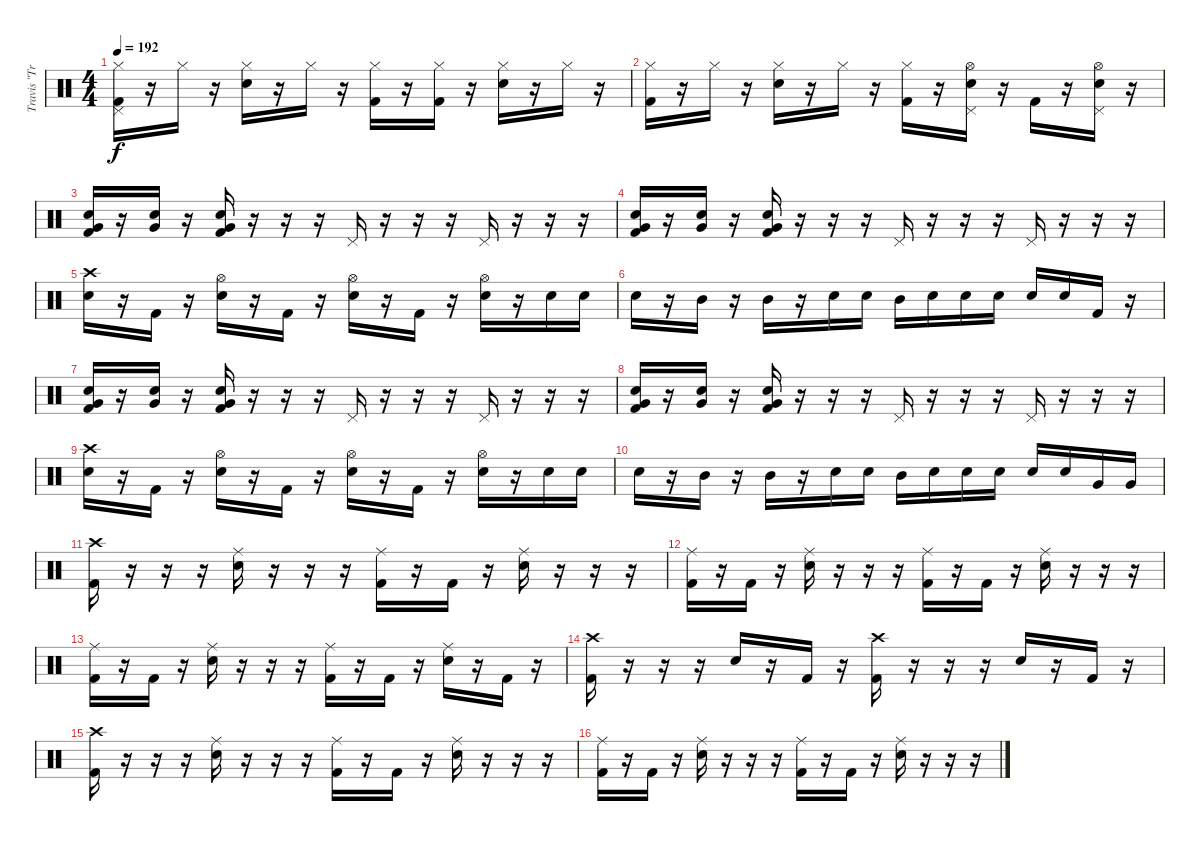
\track ("Travis \"Trevor\" Barker" "Travis \"Tr") {instrument percussion}
\staff {score}
\articulation defaults
\ts (4 4)
\tempo 192
\clef neutral
\ks c
("Hi-Hat (closed)" "Pedal Hi-Hat (hit)" "Kick (hit) 2").16{dy f} r.16 "Hi-Hat (closed)".16 r.16 ("Hi-Hat (closed)" "Snare (hit) 2").16 r.16 "Hi-Hat (closed)".16 r.16 ("Hi-Hat (closed)" "Kick (hit) 2").16 r.16 ("Hi-Hat (closed)" "Kick (hit) 2").16 r.16 ("Hi-Hat (closed)" "Snare (hit) 2").16 r.16 "Hi-Hat (closed)".16 r.16 |
("Hi-Hat (closed)" "Kick (hit) 2").16 r.16 "Hi-Hat (closed)".16 r.16 ("Hi-Hat (closed)" "Snare (hit) 2").16 r.16 "Hi-Hat (closed)".16 r.16 ("Hi-Hat (closed)" "Kick (hit) 2").16 r.16 ("Hi-Hat (open)" "Pedal Hi-Hat (hit)" "Snare (hit) 2").16 r.16 "Kick (hit) 2".16 r.16 ("Hi-Hat (open)" "Pedal Hi-Hat (hit)" "Snare (hit) 2").16 r.16 |
("Snare (hit) 2" "Very Low Tom (hit)" "Kick (hit) 2").16 r.16 ("Snare (hit) 2" "Very Low Tom (hit)").16 r.16 ("Snare (hit) 2" "Very Low Tom (hit)" "Kick (hit) 2").16 r.16 r.16 r.16 "Pedal Hi-Hat (hit)".16 r.16 r.16 r.16 "Pedal Hi-Hat (hit)".16 r.16 r.16 r.16 |
("Snare (hit) 2" "Very Low Tom (hit)" "Kick (hit) 2").16 r.16 ("Snare (hit) 2" "Very Low Tom (hit)").16 r.16 ("Snare (hit) 2" "Very Low Tom (hit)" "Kick (hit) 2").16 r.16 r.16 r.16 "Pedal Hi-Hat (hit)".16 r.16 r.16 r.16 "Pedal Hi-Hat (hit)".16 r.16 r.16 r.16 |
("Crash high (hit)" "Snare (hit) 2").16 r.16 "Kick (hit) 2".16 r.16 ("Hi-Hat (open)" "Snare (hit) 2").16 r.16 "Kick (hit) 2".16 r.16 ("Hi-Hat (open)" "Snare (hit) 2").16 r.16 "Kick (hit) 2".16 r.16 ("Hi-Hat (open)" "Snare (hit) 2").16 r.16 "Snare (hit) 2".16 "Snare (hit) 2".16 |
"Snare (hit) 2".16 r.16 "Mid Tom (hit)".16 r.16 "Mid Tom (hit)".16 r.16 "Snare (hit) 2".16 "Snare (hit) 2".16 "Mid Tom (hit)".16 "Snare (hit) 2".16 "Snare (hit) 2".16 "Snare (hit) 2".16 "Snare (hit) 2".16 "Snare (hit) 2".16 "Kick (hit) 2".16 r.16 |
("Snare (hit) 2" "Very Low Tom (hit)" "Kick (hit) 2").16 r.16 ("Snare (hit) 2" "Very Low Tom (hit)").16 r.16 ("Snare (hit) 2" "Very Low Tom (hit)" "Kick (hit) 2").16 r.16 r.16 r.16 "Pedal Hi-Hat (hit)".16 r.16 r.16 r.16 "Pedal Hi-Hat (hit)".16 r.16 r.16 r.16 |
("Snare (hit) 2" "Very Low Tom (hit)" "Kick (hit) 2").16 r.16 ("Snare (hit) 2" "Very Low Tom (hit)").16 r.16 ("Snare (hit) 2" "Very Low Tom (hit)" "Kick (hit) 2").16 r.16 r.16 r.16 "Pedal Hi-Hat (hit)".16 r.16 r.16 r.16 "Pedal Hi-Hat (hit)".16 r.16 r.16 r.16 |
("Crash high (hit)" "Snare (hit) 2").16 r.16 "Kick (hit) 2".16 r.16 ("Hi-Hat (open)" "Snare (hit) 2").16 r.16 "Kick (hit) 2".16 r.16 ("Hi-Hat (open)" "Snare (hit) 2").16 r.16 "Kick (hit) 2".16 r.16 ("Hi-Hat (open)" "Snare (hit) 2").16 r.16 "Snare (hit) 2".16 "Snare (hit) 2".16 |
"Snare (hit) 2".16 r.16 "Mid Tom (hit)".16 r.16 "Mid Tom (hit)".16 r.16 "Snare (hit) 2".16 "Snare (hit) 2".16 "Mid Tom (hit)".16 "Snare (hit) 2".16 "Snare (hit) 2".16 "Snare (hit) 2".16 "Snare (hit) 2".16 "Snare (hit) 2".16 "Very Low Tom (hit)".16 "Very Low Tom (hit)".16 |
("Crash high (hit)" "Kick (hit) 2").16 r.16 r.16 r.16 ("Ride (middle)" "Snare (hit) 2").16 r.16 r.16 r.16 ("Ride (middle)" "Kick (hit) 2").16 r.16 "Kick (hit) 2".16 r.16 ("Ride (middle)" "Snare (hit) 2").16 r.16 r.16 r.16 |
("Ride (middle)" "Kick (hit) 2").16 r.16 "Kick (hit) 2".16 r.16 ("Ride (middle)" "Snare (hit) 2").16 r.16 r.16 r.16 ("Ride (middle)" "Kick (hit) 2").16 r.16 "Kick (hit) 2".16 r.16 ("Ride (middle)" "Snare (hit) 2").16 r.16 r.16 r.16 |
("Ride (middle)" "Kick (hit) 2").16 r.16 "Kick (hit) 2".16 r.16 ("Ride (middle)" "Snare (hit) 2").16 r.16 r.16 r.16 ("Ride (middle)" "Kick (hit) 2").16 r.16 "Kick (hit) 2".16 r.16 ("Ride (middle)" "Snare (hit) 2").16 r.16 "Kick (hit) 2".16 r.16 |
("Crash high (hit)" "Kick (hit) 2").16 r.16 r.16 r.16 "Snare (hit) 2".16 r.16 "Kick (hit) 2".16 r.16 ("Crash high (hit)" "Kick (hit) 2").16 r.16 r.16 r.16 "Snare (hit) 2".16 r.16 "Kick (hit) 2".16 r.16 |
("Crash high (hit)" "Kick (hit) 2").16 r.16 r.16 r.16 ("Ride (middle)" "Snare (hit) 2").16 r.16 r.16 r.16 ("Ride (middle)" "Kick (hit) 2").16 r.16 "Kick (hit) 2".16 r.16 ("Ride (middle)" "Snare (hit) 2").16 r.16 r.16 r.16 |
("Ride (middle)" "Kick (hit) 2").16 r.16 "Kick (hit) 2".16 r.16 ("Ride (middle)" "Snare (hit) 2").16 r.16 r.16 r.16 ("Ride (middle)" "Kick (hit) 2").16 r.16 "Kick (hit) 2".16 r.16 ("Ride (middle)" "Snare (hit) 2").16 r.16 r.16 r.16
